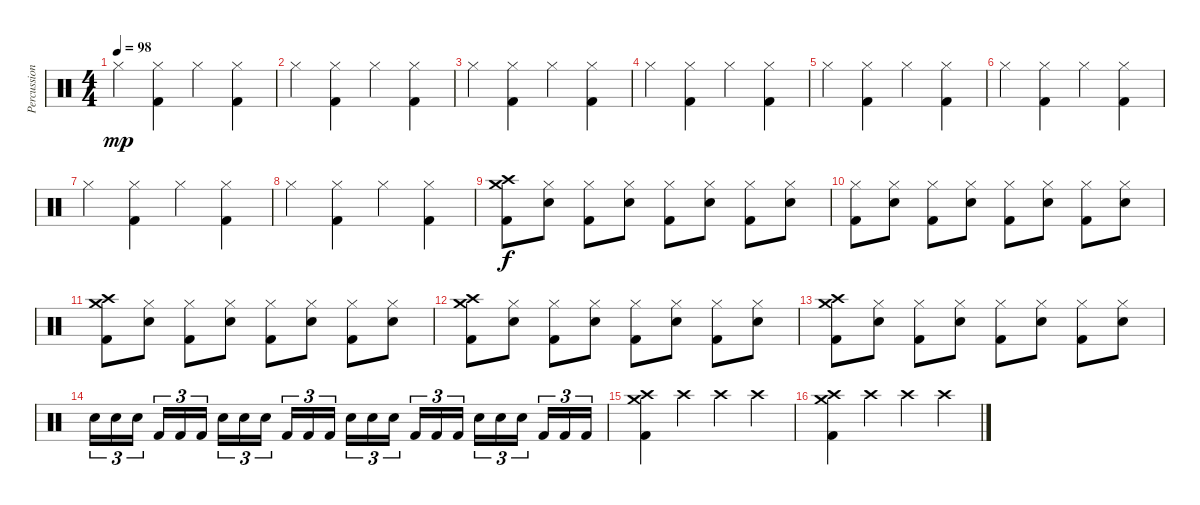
\track ("Percussion" "Percussion") {instrument percussion}
\staff {score}
\articulation defaults
\ts (4 4)
\tempo 98
\clef neutral
\ks c "Hi-Hat (closed)".4{dy mp}
("Hi-Hat (closed)" "Kick (hit) 2").4 "Hi-Hat (closed)".4 ("Hi-Hat (closed)" "Kick (hit) 2").4 |
"Hi-Hat (closed)".4 ("Hi-Hat (closed)" "Kick (hit) 2").4 "Hi-Hat (closed)".4 ("Hi-Hat (closed)" "Kick (hit) 2").4 |
"Hi-Hat (closed)".4 ("Hi-Hat (closed)" "Kick (hit) 2").4 "Hi-Hat (closed)".4 ("Hi-Hat (closed)" "Kick (hit) 2").4 |
"Hi-Hat (closed)".4 ("Hi-Hat (closed)" "Kick (hit) 2").4 "Hi-Hat (closed)".4 ("Hi-Hat (closed)" "Kick (hit) 2").4 |
"Hi-Hat (closed)".4 ("Hi-Hat (closed)" "Kick (hit) 2").4 "Hi-Hat (closed)".4 ("Hi-Hat (closed)" "Kick (hit) 2").4 |
"Hi-Hat (closed)".4 ("Hi-Hat (closed)" "Kick (hit) 2").4 "Hi-Hat (closed)".4 ("Hi-Hat (closed)" "Kick (hit) 2").4 |
"Hi-Hat (closed)".4 ("Hi-Hat (closed)" "Kick (hit) 2").4 "Hi-Hat (closed)".4 ("Hi-Hat (closed)" "Kick (hit) 2").4 |
"Hi-Hat (closed)".4 ("Hi-Hat (closed)" "Kick (hit) 2").4 "Hi-Hat (closed)".4 ("Hi-Hat (closed)" "Kick (hit) 2").4 |
("Crash medium (hit)" "Crash high (hit)" "Kick (hit) 2").8{dy f} ("Hi-Hat (closed)" "Snare (hit) 2").8 ("Hi-Hat (closed)" "Kick (hit) 2").8 ("Hi-Hat (closed)" "Snare (hit) 2").8 ("Hi-Hat (closed)" "Kick (hit) 2").8 ("Hi-Hat (closed)" "Snare (hit) 2").8 ("Hi-Hat (closed)" "Kick (hit) 2").8 ("Hi-Hat (closed)" "Snare (hit) 2").8 |
("Hi-Hat (closed)" "Kick (hit) 2").8 ("Hi-Hat (closed)" "Snare (hit) 2").8 ("Hi-Hat (closed)" "Kick (hit) 2").8 ("Hi-Hat (closed)" "Snare (hit) 2").8 ("Hi-Hat (closed)" "Kick (hit) 2").8 ("Hi-Hat (closed)" "Snare (hit) 2").8 ("Hi-Hat (closed)" "Kick (hit) 2").8 ("Hi-Hat (closed)" "Snare (hit) 2").8 |
("Crash medium (hit)" "Crash high (hit)" "Kick (hit) 2").8 ("Hi-Hat (closed)" "Snare (hit) 2").8 ("Hi-Hat (closed)" "Kick (hit) 2").8 ("Hi-Hat (closed)" "Snare (hit) 2").8 ("Hi-Hat (closed)" "Kick (hit) 2").8 ("Hi-Hat (closed)" "Snare (hit) 2").8 ("Hi-Hat (closed)" "Kick (hit) 2").8 ("Hi-Hat (closed)" "Snare (hit) 2").8 |
("Crash medium (hit)" "Crash high (hit)" "Kick (hit) 2").8 ("Hi-Hat (closed)" "Snare (hit) 2").8 ("Hi-Hat (closed)" "Kick (hit) 2").8 ("Hi-Hat (closed)" "Snare (hit) 2").8 ("Hi-Hat (closed)" "Kick (hit) 2").8 ("Hi-Hat (closed)" "Snare (hit) 2").8 ("Hi-Hat (closed)" "Kick (hit) 2").8 ("Hi-Hat (closed)" "Snare (hit) 2").8 |
("Crash medium (hit)" "Crash high (hit)" "Kick (hit) 2").8 ("Hi-Hat (closed)" "Snare (hit) 2").8 ("Hi-Hat (closed)" "Kick (hit) 2").8 ("Hi-Hat (closed)" "Snare (hit) 2").8 ("Hi-Hat (closed)" "Kick (hit) 2").8 ("Hi-Hat (closed)" "Snare (hit) 2").8 ("Hi-Hat (closed)" "Kick (hit) 2").8 ("Hi-Hat (closed)" "Snare (hit) 2").8 |
"Snare (hit) 2".16{tu (3 2)} "Snare (hit) 2".16{tu (3 2)} "Snare (hit) 2".16{tu (3 2) beam splitsecondary} "Kick (hit) 2".16{tu (3 2)} "Kick (hit) 2".16{tu (3 2)} "Kick (hit) 2".16{tu (3 2)} "Snare (hit) 2".16{tu (3 2)} "Snare (hit) 2".16{tu (3 2)} "Snare (hit) 2".16{tu (3 2) beam splitsecondary} "Kick (hit) 2".16{tu (3 2)} "Kick (hit) 2".16{tu (3 2)} "Kick (hit) 2".16{tu (3 2)} "Snare (hit) 2".16{tu (3 2)} "Snare (hit) 2".16{tu (3 2)} "Snare (hit) 2".16{tu (3 2) beam splitsecondary} "Kick (hit) 2".16{tu (3 2)} "Kick (hit) 2".16{tu (3 2)} "Kick (hit) 2".16{tu (3 2)} "Snare (hit) 2".16{tu (3 2)} "Snare (hit) 2".16{tu (3 2)} "Snare (hit) 2".16{tu (3 2) beam splitsecondary} "Kick (hit) 2".16{tu (3 2)} "Kick (hit) 2".16{tu (3 2)} "Kick (hit) 2".16{tu (3 2)} |
("Crash medium (hit)" "Crash high (hit)" "Kick (hit) 2").4 "Crash high (hit)".4 "Crash high (hit)".4 "Crash high (hit)".4 |
("Crash medium (hit)" "Crash high (hit)" "Kick (hit) 2").4 "Crash high (hit)".4 "Crash high (hit)".4 "Crash high (hit)".4
